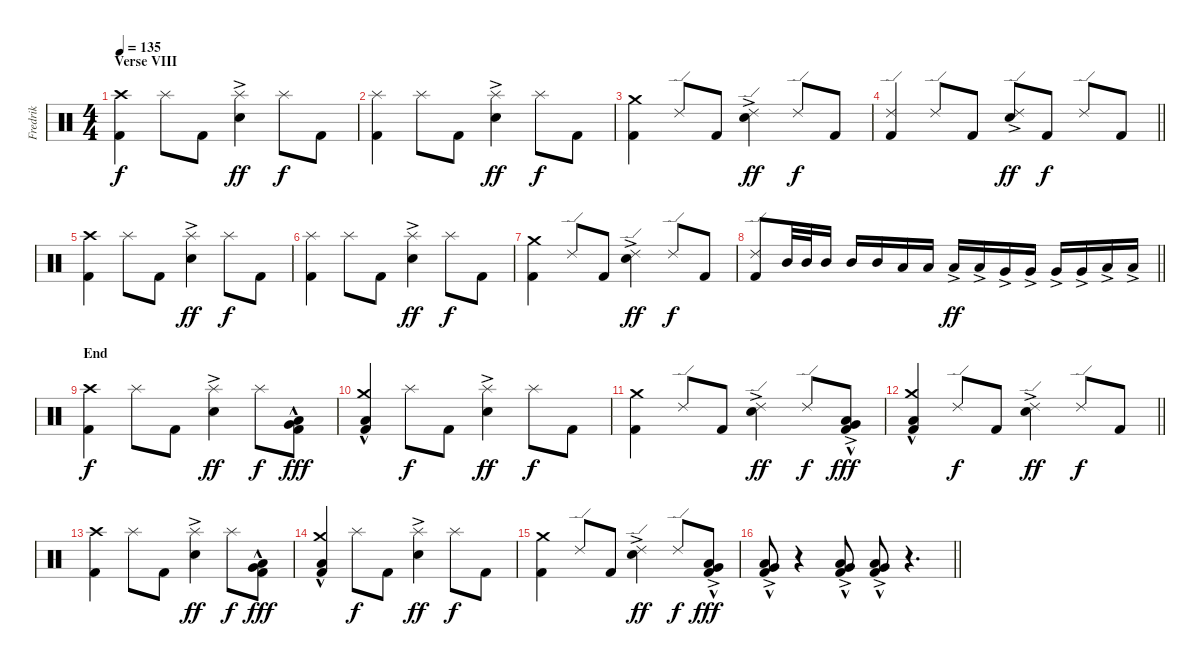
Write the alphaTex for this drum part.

\track ("Fredrik" "Fredrik") {instrument percussion}
\staff {score}
\articulation defaults
\ts (4 4)
\section ("" "Verse VIII")
\tempo 135
\clef neutral
\ks c
("Kick (hit) 2" "Crash high (hit)").4{dy f} "Splash (hit)".8 "Kick (hit) 2".8 ("Snare (hit) 2"{ac} "Splash (hit)").4{dy ff} "Splash (hit)".8{dy f} "Kick (hit) 2".8 |
("Kick (hit) 2" "Splash (hit)").4 "Splash (hit)".8 "Kick (hit) 2".8 ("Snare (hit) 2"{ac} "Splash (hit)").4{dy ff} "Splash (hit)".8{dy f} "Kick (hit) 2".8 |
("Kick (hit) 2" "Crash medium (hit)").4 "Ride (edge) 2".8 "Kick (hit) 2".8 ("Snare (hit) 2"{ac} "Ride (edge) 2").4{dy ff} "Ride (edge) 2".8{dy f} "Kick (hit) 2".8 |
\barLineRight lightlight
("Kick (hit) 2" "Ride (edge) 2").4 "Ride (edge) 2".8 "Kick (hit) 2".8 ("Snare (hit) 2"{ac} "Ride (edge) 2").8{dy ff} "Kick (hit) 2".8{dy f} "Ride (edge) 2".8 "Kick (hit) 2".8 |
\section ("" "")
("Kick (hit) 2" "Crash high (hit)").4 "Splash (hit)".8 "Kick (hit) 2".8 ("Snare (hit) 2"{ac} "Splash (hit)").4{dy ff} "Splash (hit)".8{dy f} "Kick (hit) 2".8 |
("Kick (hit) 2" "Splash (hit)").4 "Splash (hit)".8 "Kick (hit) 2".8 ("Snare (hit) 2"{ac} "Splash (hit)").4{dy ff} "Splash (hit)".8{dy f} "Kick (hit) 2".8 |
("Kick (hit) 2" "Crash medium (hit)").4 "Ride (edge) 2".8 "Kick (hit) 2".8 ("Snare (hit) 2"{ac} "Ride (edge) 2").4{dy ff} "Ride (edge) 2".8{dy f} "Kick (hit) 2".8 |
\barLineRight lightlight
("Kick (hit) 2" "Ride (edge) 2").8 "Mid Tom (hit)".32 "Mid Tom (hit)".32 "Mid Tom (hit)".16 "Mid Tom (hit)".16 "Mid Tom (hit)".16 "Low Tom (hit)".16 "Low Tom (hit)".16 "Low Tom (hit)"{ac}.16{dy ff} "Low Tom (hit)"{ac}.16 "Very Low Tom (hit)"{ac}.16 "Very Low Tom (hit)"{ac}.16 "Very Low Tom (hit)"{ac}.16 "Very Low Tom (hit)"{ac}.16 "Low Floor Tom (hit)"{ac}.16 "Low Floor Tom (hit)"{ac}.16 |
\section ("" "End")
("Kick (hit) 2" "Crash high (hit)").4{dy f} "Splash (hit)".8 "Kick (hit) 2".8 ("Snare (hit) 2"{ac} "Splash (hit)").4{dy ff} "Splash (hit)".8{dy f} ("Kick (hit) 2" "Very Low Tom (hit)" "Low Floor Tom (hit)"{hac}).8{dy fff} |
("Kick (hit) 2" "Low Floor Tom (hit)"{hac} "Crash medium (hit)").4 "Splash (hit)".8{dy f} "Kick (hit) 2".8 ("Snare (hit) 2"{ac} "Splash (hit)").4{dy ff} "Splash (hit)".8{dy f} "Kick (hit) 2".8 |
("Kick (hit) 2" "Crash medium (hit)").4 "Ride (edge) 2".8 "Kick (hit) 2".8 ("Snare (hit) 2"{ac} "Ride (edge) 2").4{dy ff} "Ride (edge) 2".8{dy f} ("Kick (hit) 2" "Very Low Tom (hit)"{ac} "Low Floor Tom (hit)"{hac}).8{dy fff} |
\barLineRight lightlight
("Kick (hit) 2" "Low Floor Tom (hit)"{hac} "Crash medium (hit)").4 "Ride (edge) 2".8{dy f} "Kick (hit) 2".8 ("Snare (hit) 2"{ac} "Ride (edge) 2").4{dy ff} "Ride (edge) 2".8{dy f} "Kick (hit) 2".8 |
\section ("" "")
("Kick (hit) 2" "Crash high (hit)").4 "Splash (hit)".8 "Kick (hit) 2".8 ("Snare (hit) 2"{ac} "Splash (hit)").4{dy ff} "Splash (hit)".8{dy f} ("Kick (hit) 2" "Very Low Tom (hit)" "Low Floor Tom (hit)"{hac}).8{dy fff} |
("Kick (hit) 2" "Low Floor Tom (hit)"{hac} "Crash medium (hit)").4 "Splash (hit)".8{dy f} "Kick (hit) 2".8 ("Snare (hit) 2"{ac} "Splash (hit)").4{dy ff} "Splash (hit)".8{dy f} "Kick (hit) 2".8 |
("Kick (hit) 2" "Crash medium (hit)").4 "Ride (edge) 2".8 "Kick (hit) 2".8 ("Snare (hit) 2"{ac} "Ride (edge) 2").4{dy ff} "Ride (edge) 2".8{dy f} ("Kick (hit) 2" "Very Low Tom (hit)"{ac} "Low Floor Tom (hit)"{hac}).8{dy fff} |
\barLineRight lightlight
("Kick (hit) 2" "Very Low Tom (hit)"{ac} "Low Floor Tom (hit)"{hac}).8 r.4 ("Kick (hit) 2" "Very Low Tom (hit)"{ac} "Low Floor Tom (hit)"{hac}).8 ("Kick (hit) 2" "Very Low Tom (hit)"{ac} "Low Floor Tom (hit)"{hac}).8 r.4{d}
